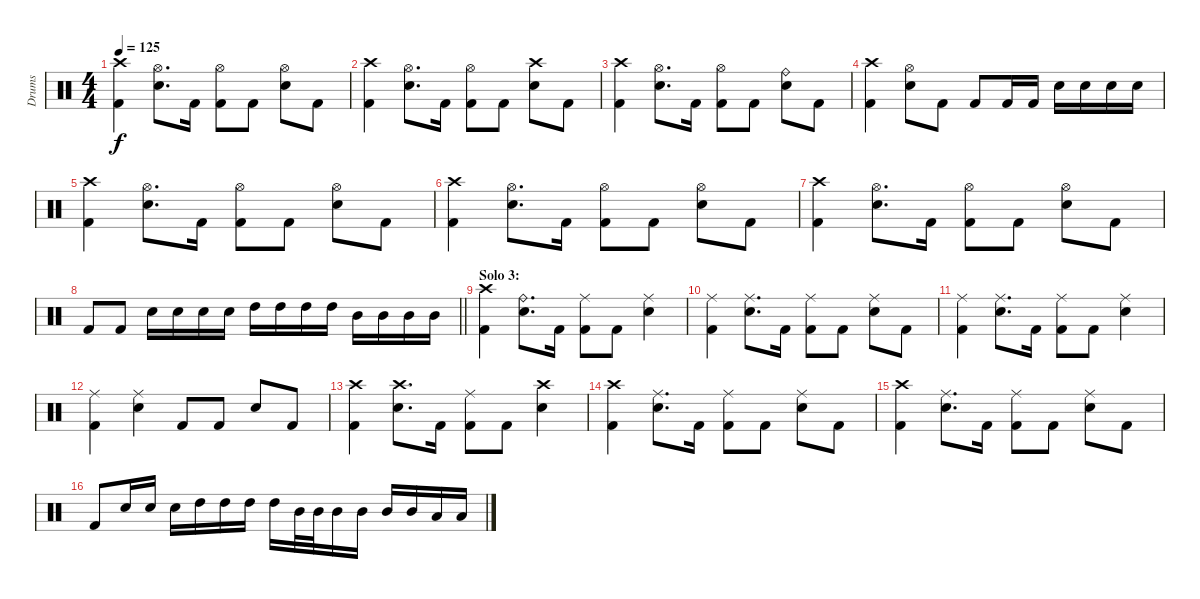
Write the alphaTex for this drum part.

\track ("Drums" "Drums") {instrument percussion}
\staff {score}
\articulation defaults
\ts (4 4)
\tempo 125
\clef neutral
\ks c
("Crash high (hit)" "Kick (hit) 2").4{dy f} ("Hi-Hat (open)" "Electric Snare (hit)").8{d} "Kick (hit) 2".16 ("Hi-Hat (open)" "Kick (hit) 2").8 "Kick (hit) 2".8 ("Hi-Hat (open)" "Electric Snare (hit)").8 "Kick (hit) 2".8 |
("Crash high (hit)" "Kick (hit) 2").4 ("Hi-Hat (open)" "Electric Snare (hit)").8{d} "Kick (hit) 2".16 ("Hi-Hat (open)" "Kick (hit) 2").8 "Kick (hit) 2".8 ("Crash high (hit)" "Electric Snare (hit)").8 "Kick (hit) 2".8 |
("Crash high (hit)" "Kick (hit) 2").4 ("Hi-Hat (open)" "Electric Snare (hit)").8{d} "Kick (hit) 2".16 ("Hi-Hat (open)" "Kick (hit) 2").8 "Kick (hit) 2".8 ("Ride (bell)" "Electric Snare (hit)").8 "Kick (hit) 2".8 |
("Crash high (hit)" "Kick (hit) 2").4 ("Hi-Hat (open)" "Electric Snare (hit)").8 "Kick (hit) 2".8 "Kick (hit) 2".8 "Kick (hit) 2".16 "Kick (hit) 2".16 "Electric Snare (hit)".16 "Electric Snare (hit)".16 "Electric Snare (hit)".16 "Electric Snare (hit)".16 |
("Crash high (hit)" "Kick (hit) 2").4 ("Hi-Hat (open)" "Electric Snare (hit)").8{d} "Kick (hit) 2".16 ("Hi-Hat (open)" "Kick (hit) 2").8 "Kick (hit) 2".8 ("Hi-Hat (open)" "Electric Snare (hit)").8 "Kick (hit) 2".8 |
("Crash high (hit)" "Kick (hit) 2").4 ("Hi-Hat (open)" "Electric Snare (hit)").8{d} "Kick (hit) 2".16 ("Hi-Hat (open)" "Kick (hit) 2").8 "Kick (hit) 2".8 ("Hi-Hat (open)" "Electric Snare (hit)").8 "Kick (hit) 2".8 |
("Crash high (hit)" "Kick (hit) 2").4 ("Hi-Hat (open)" "Electric Snare (hit)").8{d} "Kick (hit) 2".16 ("Hi-Hat (open)" "Kick (hit) 2").8 "Kick (hit) 2".8 ("Hi-Hat (open)" "Electric Snare (hit)").8 "Kick (hit) 2".8 |
\barLineRight lightlight "Kick (hit) 2".8 "Kick (hit) 2".8 "Electric Snare (hit)".16 "Electric Snare (hit)".16 "Electric Snare (hit)".16 "Electric Snare (hit)".16 "High Tom (hit)".16 "High Tom (hit)".16 "High Tom (hit)".16 "High Tom (hit)".16 "Mid Tom (hit)".16 "Mid Tom (hit)".16 "Mid Tom (hit)".16 "Mid Tom (hit)".16
|
\section ("" "Solo 3:")
("Crash high (hit)" "Kick (hit) 2").4 ("Ride (bell)" "Electric Snare (hit)").8{d} "Kick (hit) 2".16 ("Ride (middle)" "Kick (hit) 2").8 "Kick (hit) 2".8 ("Ride (middle)" "Electric Snare (hit)").4 |
("Ride (middle)" "Kick (hit) 2").4 ("Ride (middle)" "Electric Snare (hit)").8{d} "Kick (hit) 2".16 ("Ride (middle)" "Kick (hit) 2").8 "Kick (hit) 2".8 ("Ride (middle)" "Electric Snare (hit)").8 "Kick (hit) 2".8 |
("Ride (middle)" "Kick (hit) 2").4 ("Ride (middle)" "Electric Snare (hit)").8{d} "Kick (hit) 2".16 ("Ride (middle)" "Kick (hit) 2").8 "Kick (hit) 2".8 ("Ride (middle)" "Electric Snare (hit)").4 |
("Ride (middle)" "Kick (hit) 2").4 ("Ride (middle)" "Electric Snare (hit)").4 "Kick (hit) 2".8 "Kick (hit) 2".8 "Electric Snare (hit)".8 "Kick (hit) 2".8 |
("Crash high (hit)" "Kick (hit) 2").4 ("Crash high (hit)" "Electric Snare (hit)").8{d} "Kick (hit) 2".16 ("Ride (middle)" "Kick (hit) 2").8 "Kick (hit) 2".8 ("Crash high (hit)" "Electric Snare (hit)").4 |
("Crash high (hit)" "Kick (hit) 2").4 ("Ride (middle)" "Electric Snare (hit)").8{d} "Kick (hit) 2".16 ("Ride (middle)" "Kick (hit) 2").8 "Kick (hit) 2".8 ("Ride (middle)" "Electric Snare (hit)").8 "Kick (hit) 2".8 |
("Crash high (hit)" "Kick (hit) 2").4 ("Ride (middle)" "Electric Snare (hit)").8{d} "Kick (hit) 2".16 ("Ride (middle)" "Kick (hit) 2").8 "Kick (hit) 2".8 ("Ride (middle)" "Electric Snare (hit)").8 "Kick (hit) 2".8 |
"Kick (hit) 2".8 "Electric Snare (hit)".16 "Electric Snare (hit)".16 "Electric Snare (hit)".16 "High Tom (hit)".16 "High Tom (hit)".16 "High Tom (hit)".16 "High Tom (hit)".16 "Mid Tom (hit)".32 "Mid Tom (hit)".32 "Mid Tom (hit)".16 "Mid Tom (hit)".16 "Mid Tom (hit)".16 "Mid Tom (hit)".16 "Low Tom (hit)".16 "Low Tom (hit)".16
